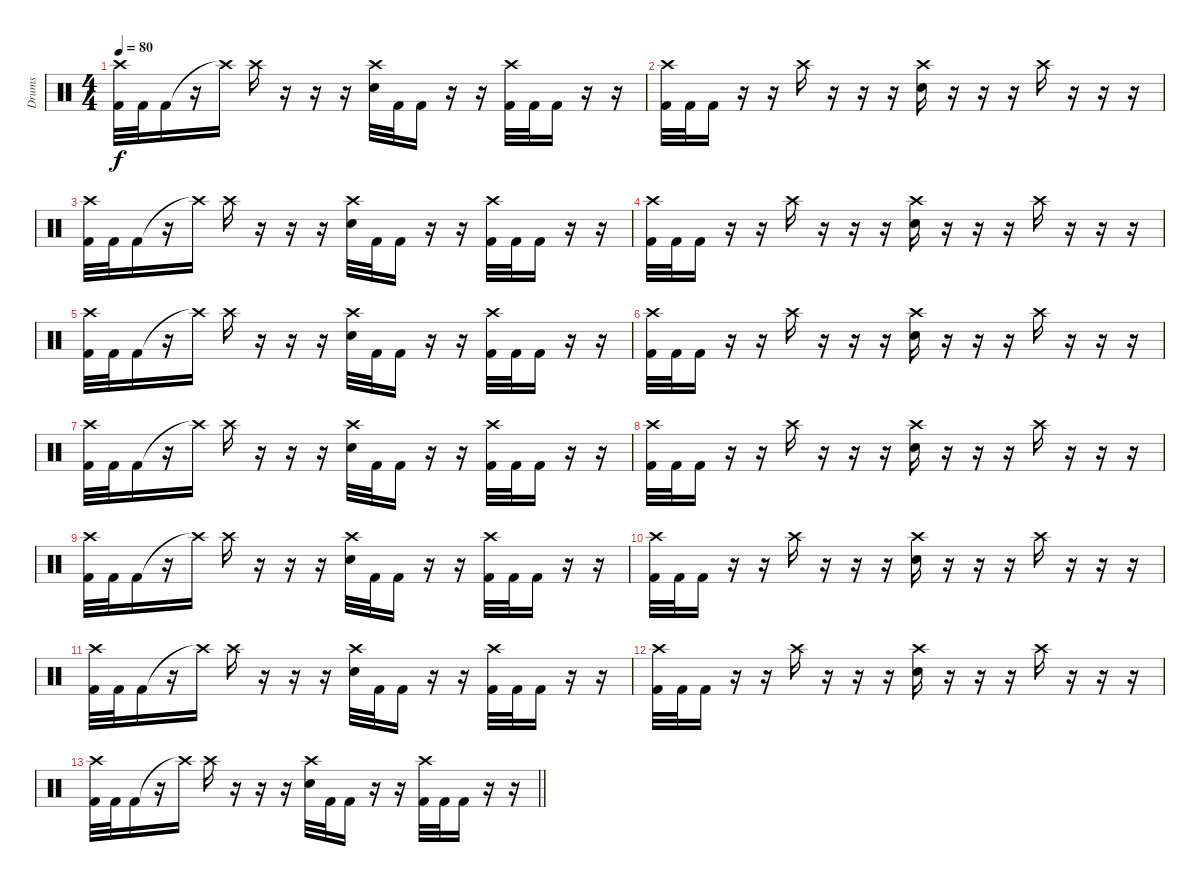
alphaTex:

\track ("Drums" "Drums") {instrument percussion}
\staff {score}
\articulation defaults
\ts (4 4)
\tempo 80
\clef neutral
\ks c
("Crash high (hit)" "Kick (hit) 2").32{dy f} "Kick (hit) 2".32 "Kick (hit) 2".16 r.16 "Crash high (hit)"{t}.16 "Crash high (hit)".16 r.16 r.16 r.16 ("Crash high (hit)" "Snare (hit) 2").32 "Kick (hit) 2".32 "Kick (hit) 2".16 r.16 r.16 ("Crash high (hit)" "Kick (hit) 2").32 "Kick (hit) 2".32 "Kick (hit) 2".16 r.16 r.16 |
("Crash high (hit)" "Kick (hit) 2").32 "Kick (hit) 2".32 "Kick (hit) 2".16 r.16 r.16 "Crash high (hit)".16 r.16 r.16 r.16 ("Crash high (hit)" "Snare (hit) 2").16 r.16 r.16 r.16 "Crash high (hit)".16 r.16 r.16 r.16 |
("Crash high (hit)" "Kick (hit) 2").32 "Kick (hit) 2".32 "Kick (hit) 2".16 r.16 "Crash high (hit)"{t}.16 "Crash high (hit)".16 r.16 r.16 r.16 ("Crash high (hit)" "Snare (hit) 2").32 "Kick (hit) 2".32 "Kick (hit) 2".16 r.16 r.16 ("Crash high (hit)" "Kick (hit) 2").32 "Kick (hit) 2".32 "Kick (hit) 2".16 r.16 r.16 |
("Crash high (hit)" "Kick (hit) 2").32 "Kick (hit) 2".32 "Kick (hit) 2".16 r.16 r.16 "Crash high (hit)".16 r.16 r.16 r.16 ("Crash high (hit)" "Snare (hit) 2").16 r.16 r.16 r.16 "Crash high (hit)".16 r.16 r.16 r.16 |
("Crash high (hit)" "Kick (hit) 2").32 "Kick (hit) 2".32 "Kick (hit) 2".16 r.16 "Crash high (hit)"{t}.16 "Crash high (hit)".16 r.16 r.16 r.16 ("Crash high (hit)" "Snare (hit) 2").32 "Kick (hit) 2".32 "Kick (hit) 2".16 r.16 r.16 ("Crash high (hit)" "Kick (hit) 2").32 "Kick (hit) 2".32 "Kick (hit) 2".16 r.16 r.16 |
("Crash high (hit)" "Kick (hit) 2").32 "Kick (hit) 2".32 "Kick (hit) 2".16 r.16 r.16 "Crash high (hit)".16 r.16 r.16 r.16 ("Crash high (hit)" "Snare (hit) 2").16 r.16 r.16 r.16 "Crash high (hit)".16 r.16 r.16 r.16 |
("Crash high (hit)" "Kick (hit) 2").32 "Kick (hit) 2".32 "Kick (hit) 2".16 r.16 "Crash high (hit)"{t}.16 "Crash high (hit)".16 r.16 r.16 r.16 ("Crash high (hit)" "Snare (hit) 2").32 "Kick (hit) 2".32 "Kick (hit) 2".16 r.16 r.16 ("Crash high (hit)" "Kick (hit) 2").32 "Kick (hit) 2".32 "Kick (hit) 2".16 r.16 r.16 |
("Crash high (hit)" "Kick (hit) 2").32 "Kick (hit) 2".32 "Kick (hit) 2".16 r.16 r.16 "Crash high (hit)".16 r.16 r.16 r.16 ("Crash high (hit)" "Snare (hit) 2").16 r.16 r.16 r.16 "Crash high (hit)".16 r.16 r.16 r.16 |
("Crash high (hit)" "Kick (hit) 2").32 "Kick (hit) 2".32 "Kick (hit) 2".16 r.16 "Crash high (hit)"{t}.16 "Crash high (hit)".16 r.16 r.16 r.16 ("Crash high (hit)" "Snare (hit) 2").32 "Kick (hit) 2".32 "Kick (hit) 2".16 r.16 r.16 ("Crash high (hit)" "Kick (hit) 2").32 "Kick (hit) 2".32 "Kick (hit) 2".16 r.16 r.16 |
("Crash high (hit)" "Kick (hit) 2").32 "Kick (hit) 2".32 "Kick (hit) 2".16 r.16 r.16 "Crash high (hit)".16 r.16 r.16 r.16 ("Crash high (hit)" "Snare (hit) 2").16 r.16 r.16 r.16 "Crash high (hit)".16 r.16 r.16 r.16 |
("Crash high (hit)" "Kick (hit) 2").32 "Kick (hit) 2".32 "Kick (hit) 2".16 r.16 "Crash high (hit)"{t}.16 "Crash high (hit)".16 r.16 r.16 r.16 ("Crash high (hit)" "Snare (hit) 2").32 "Kick (hit) 2".32 "Kick (hit) 2".16 r.16 r.16 ("Crash high (hit)" "Kick (hit) 2").32 "Kick (hit) 2".32 "Kick (hit) 2".16 r.16 r.16 |
("Crash high (hit)" "Kick (hit) 2").32 "Kick (hit) 2".32 "Kick (hit) 2".16 r.16 r.16 "Crash high (hit)".16 r.16 r.16 r.16 ("Crash high (hit)" "Snare (hit) 2").16 r.16 r.16 r.16 "Crash high (hit)".16 r.16 r.16 r.16 |
\barLineRight lightlight
("Crash high (hit)" "Kick (hit) 2").32 "Kick (hit) 2".32 "Kick (hit) 2".16 r.16 "Crash high (hit)"{t}.16 "Crash high (hit)".16 r.16 r.16 r.16 ("Crash high (hit)" "Snare (hit) 2").32 "Kick (hit) 2".32 "Kick (hit) 2".16 r.16 r.16 ("Crash high (hit)" "Kick (hit) 2").32 "Kick (hit) 2".32 "Kick (hit) 2".16 r.16 r.16
